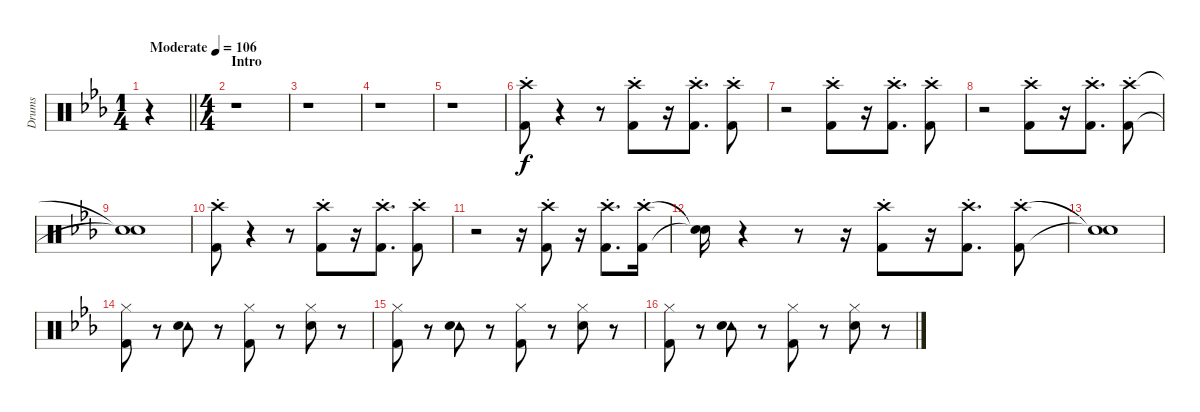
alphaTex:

\track ("Drums" "Drums") {instrument percussion}
\staff {score}
\articulation defaults
\ts (1 4)
\tempo (106 "Moderate")
\clef neutral
\barLineRight lightlight
\ks cminor
r.4{dy f} |
\ts (4 4)
\section ("" "Intro")
r.1 |
r.1 |
r.1 |
r.1 |
("Crash high (hit)"{st} "Kick (hit) 2").8 r.4 r.8 ("Crash high (hit)"{st} "Kick (hit) 2").8 r.16 ("Crash high (hit)"{st} "Kick (hit) 2").8{d} ("Crash high (hit)"{st} "Kick (hit) 2").8 |
r.2 ("Crash high (hit)"{st} "Kick (hit) 2").8 r.16 ("Crash high (hit)"{st} "Kick (hit) 2").8{d} ("Crash high (hit)"{st} "Kick (hit) 2").8 |
r.2 ("Crash high (hit)"{st} "Kick (hit) 2").8 r.16 ("Crash high (hit)"{st} "Kick (hit) 2").8{d} ("Crash high (hit)"{st} "Kick (hit) 2").8 |
("Snare (hit)"{t} "Snare (hit)"{t}).1 |
("Crash high (hit)"{st} "Kick (hit) 2").8 r.4 r.8 ("Crash high (hit)"{st} "Kick (hit) 2").8 r.16 ("Crash high (hit)"{st} "Kick (hit) 2").8{d} ("Crash high (hit)"{st} "Kick (hit) 2").8 |
r.2 r.16 ("Crash high (hit)"{st} "Kick (hit) 2").8 r.16 ("Crash high (hit)"{st} "Kick (hit) 2").8{d} ("Crash high (hit)"{st} "Kick (hit) 2").16 |
("Snare (hit)"{t} "Snare (hit)"{t}).16 r.4 r.8 r.16 ("Crash high (hit)"{st} "Kick (hit) 2").8 r.16 ("Crash high (hit)"{st} "Kick (hit) 2").8{d} ("Crash high (hit)"{st} "Kick (hit) 2").8 |
("Snare (hit)"{t} "Snare (hit)"{t}).1 |
("Hi-Hat (closed)" "Kick (hit) 2").8 r.8 ("Tambourine (hit)" "Snare (hit) 2").8 r.8 ("Hi-Hat (closed)" "Kick (hit) 2").8 r.8 ("Hi-Hat (closed)" "Snare (hit) 2").8 r.8 |
("Hi-Hat (closed)" "Kick (hit) 2").8 r.8 ("Tambourine (hit)" "Snare (hit) 2").8 r.8 ("Hi-Hat (closed)" "Kick (hit) 2").8 r.8 ("Hi-Hat (closed)" "Snare (hit) 2").8 r.8 |
("Hi-Hat (closed)" "Kick (hit) 2").8 r.8 ("Tambourine (hit)" "Snare (hit) 2").8 r.8 ("Hi-Hat (closed)" "Kick (hit) 2").8 r.8 ("Hi-Hat (closed)" "Snare (hit) 2").8 r.8
